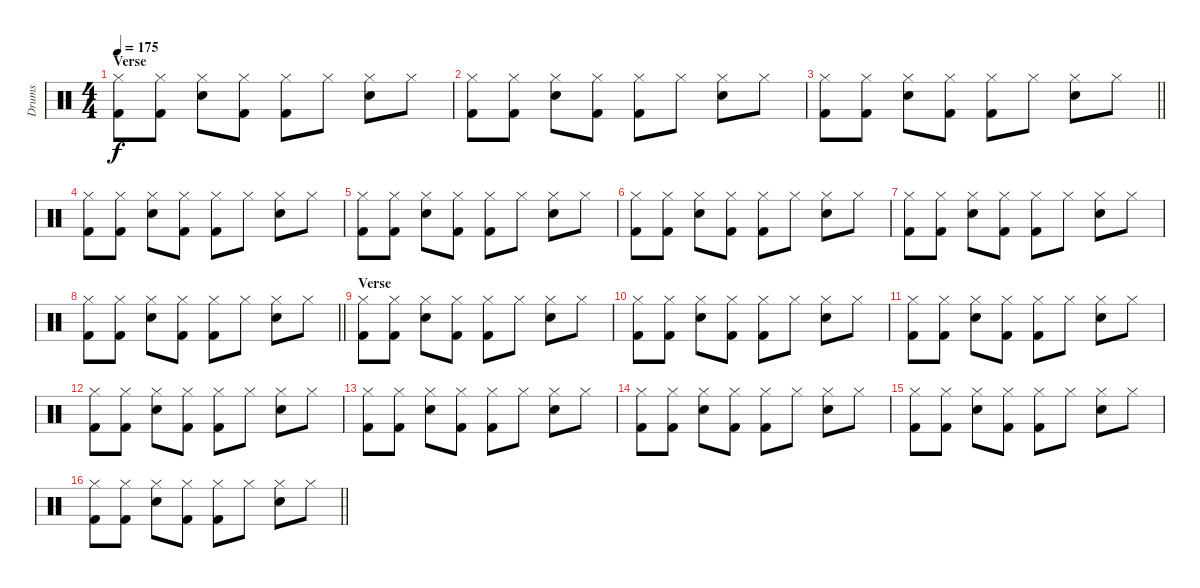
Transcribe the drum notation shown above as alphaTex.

\track ("Drums" "Drums") {instrument percussion}
\staff {score}
\articulation defaults
\ts (4 4)
\section ("" "Verse")
\tempo 175
\clef neutral
\ks c
("Hi-Hat (closed)" "Kick (hit) 2").8{dy f} ("Hi-Hat (closed)" "Kick (hit) 2").8 ("Hi-Hat (closed)" "Snare (hit) 2").8 ("Hi-Hat (closed)" "Kick (hit) 2").8 ("Hi-Hat (closed)" "Kick (hit) 2").8 "Hi-Hat (closed)".8 ("Hi-Hat (closed)" "Snare (hit) 2").8 "Hi-Hat (closed)".8 |
("Hi-Hat (closed)" "Kick (hit) 2").8 ("Hi-Hat (closed)" "Kick (hit) 2").8 ("Hi-Hat (closed)" "Snare (hit) 2").8 ("Hi-Hat (closed)" "Kick (hit) 2").8 ("Hi-Hat (closed)" "Kick (hit) 2").8 "Hi-Hat (closed)".8 ("Hi-Hat (closed)" "Snare (hit) 2").8 "Hi-Hat (closed)".8 |
\barLineRight lightlight
("Hi-Hat (closed)" "Kick (hit) 2").8 ("Hi-Hat (closed)" "Kick (hit) 2").8 ("Hi-Hat (closed)" "Snare (hit) 2").8 ("Hi-Hat (closed)" "Kick (hit) 2").8 ("Hi-Hat (closed)" "Kick (hit) 2").8 "Hi-Hat (closed)".8 ("Hi-Hat (closed)" "Snare (hit) 2").8 "Hi-Hat (closed)".8 |
\section ("" "")
("Hi-Hat (closed)" "Kick (hit) 2").8 ("Hi-Hat (closed)" "Kick (hit) 2").8 ("Hi-Hat (closed)" "Snare (hit) 2").8 ("Hi-Hat (closed)" "Kick (hit) 2").8 ("Hi-Hat (closed)" "Kick (hit) 2").8 "Hi-Hat (closed)".8 ("Hi-Hat (closed)" "Snare (hit) 2").8 "Hi-Hat (closed)".8 |
("Hi-Hat (closed)" "Kick (hit) 2").8 ("Hi-Hat (closed)" "Kick (hit) 2").8 ("Hi-Hat (closed)" "Snare (hit) 2").8 ("Hi-Hat (closed)" "Kick (hit) 2").8 ("Hi-Hat (closed)" "Kick (hit) 2").8 "Hi-Hat (closed)".8 ("Hi-Hat (closed)" "Snare (hit) 2").8 "Hi-Hat (closed)".8 |
("Hi-Hat (closed)" "Kick (hit) 2").8 ("Hi-Hat (closed)" "Kick (hit) 2").8 ("Hi-Hat (closed)" "Snare (hit) 2").8 ("Hi-Hat (closed)" "Kick (hit) 2").8 ("Hi-Hat (closed)" "Kick (hit) 2").8 "Hi-Hat (closed)".8 ("Hi-Hat (closed)" "Snare (hit) 2").8 "Hi-Hat (closed)".8 |
("Hi-Hat (closed)" "Kick (hit) 2").8 ("Hi-Hat (closed)" "Kick (hit) 2").8 ("Hi-Hat (closed)" "Snare (hit) 2").8 ("Hi-Hat (closed)" "Kick (hit) 2").8 ("Hi-Hat (closed)" "Kick (hit) 2").8 "Hi-Hat (closed)".8 ("Hi-Hat (closed)" "Snare (hit) 2").8 "Hi-Hat (closed)".8 |
\barLineRight lightlight
("Hi-Hat (closed)" "Kick (hit) 2").8 ("Hi-Hat (closed)" "Kick (hit) 2").8 ("Hi-Hat (closed)" "Snare (hit) 2").8 ("Hi-Hat (closed)" "Kick (hit) 2").8 ("Hi-Hat (closed)" "Kick (hit) 2").8 "Hi-Hat (closed)".8 ("Hi-Hat (closed)" "Snare (hit) 2").8 "Hi-Hat (closed)".8 |
\section ("" "Verse")
("Hi-Hat (closed)" "Kick (hit) 2").8 ("Hi-Hat (closed)" "Kick (hit) 2").8 ("Hi-Hat (closed)" "Snare (hit) 2").8 ("Hi-Hat (closed)" "Kick (hit) 2").8 ("Hi-Hat (closed)" "Kick (hit) 2").8 "Hi-Hat (closed)".8 ("Hi-Hat (closed)" "Snare (hit) 2").8 "Hi-Hat (closed)".8 |
("Hi-Hat (closed)" "Kick (hit) 2").8 ("Hi-Hat (closed)" "Kick (hit) 2").8 ("Hi-Hat (closed)" "Snare (hit) 2").8 ("Hi-Hat (closed)" "Kick (hit) 2").8 ("Hi-Hat (closed)" "Kick (hit) 2").8 "Hi-Hat (closed)".8 ("Hi-Hat (closed)" "Snare (hit) 2").8 "Hi-Hat (closed)".8 |
("Hi-Hat (closed)" "Kick (hit) 2").8 ("Hi-Hat (closed)" "Kick (hit) 2").8 ("Hi-Hat (closed)" "Snare (hit) 2").8 ("Hi-Hat (closed)" "Kick (hit) 2").8 ("Hi-Hat (closed)" "Kick (hit) 2").8 "Hi-Hat (closed)".8 ("Hi-Hat (closed)" "Snare (hit) 2").8 "Hi-Hat (closed)".8 |
("Hi-Hat (closed)" "Kick (hit) 2").8 ("Hi-Hat (closed)" "Kick (hit) 2").8 ("Hi-Hat (closed)" "Snare (hit) 2").8 ("Hi-Hat (closed)" "Kick (hit) 2").8 ("Hi-Hat (closed)" "Kick (hit) 2").8 "Hi-Hat (closed)".8 ("Hi-Hat (closed)" "Snare (hit) 2").8 "Hi-Hat (closed)".8 |
("Hi-Hat (closed)" "Kick (hit) 2").8 ("Hi-Hat (closed)" "Kick (hit) 2").8 ("Hi-Hat (closed)" "Snare (hit) 2").8 ("Hi-Hat (closed)" "Kick (hit) 2").8 ("Hi-Hat (closed)" "Kick (hit) 2").8 "Hi-Hat (closed)".8 ("Hi-Hat (closed)" "Snare (hit) 2").8 "Hi-Hat (closed)".8 |
("Hi-Hat (closed)" "Kick (hit) 2").8 ("Hi-Hat (closed)" "Kick (hit) 2").8 ("Hi-Hat (closed)" "Snare (hit) 2").8 ("Hi-Hat (closed)" "Kick (hit) 2").8 ("Hi-Hat (closed)" "Kick (hit) 2").8 "Hi-Hat (closed)".8 ("Hi-Hat (closed)" "Snare (hit) 2").8 "Hi-Hat (closed)".8 |
("Hi-Hat (closed)" "Kick (hit) 2").8 ("Hi-Hat (closed)" "Kick (hit) 2").8 ("Hi-Hat (closed)" "Snare (hit) 2").8 ("Hi-Hat (closed)" "Kick (hit) 2").8 ("Hi-Hat (closed)" "Kick (hit) 2").8 "Hi-Hat (closed)".8 ("Hi-Hat (closed)" "Snare (hit) 2").8 "Hi-Hat (closed)".8 |
\barLineRight lightlight
("Hi-Hat (closed)" "Kick (hit) 2").8 ("Hi-Hat (closed)" "Kick (hit) 2").8 ("Hi-Hat (closed)" "Snare (hit) 2").8 ("Hi-Hat (closed)" "Kick (hit) 2").8 ("Hi-Hat (closed)" "Kick (hit) 2").8 "Hi-Hat (closed)".8 ("Hi-Hat (closed)" "Snare (hit) 2").8 "Hi-Hat (closed)".8
